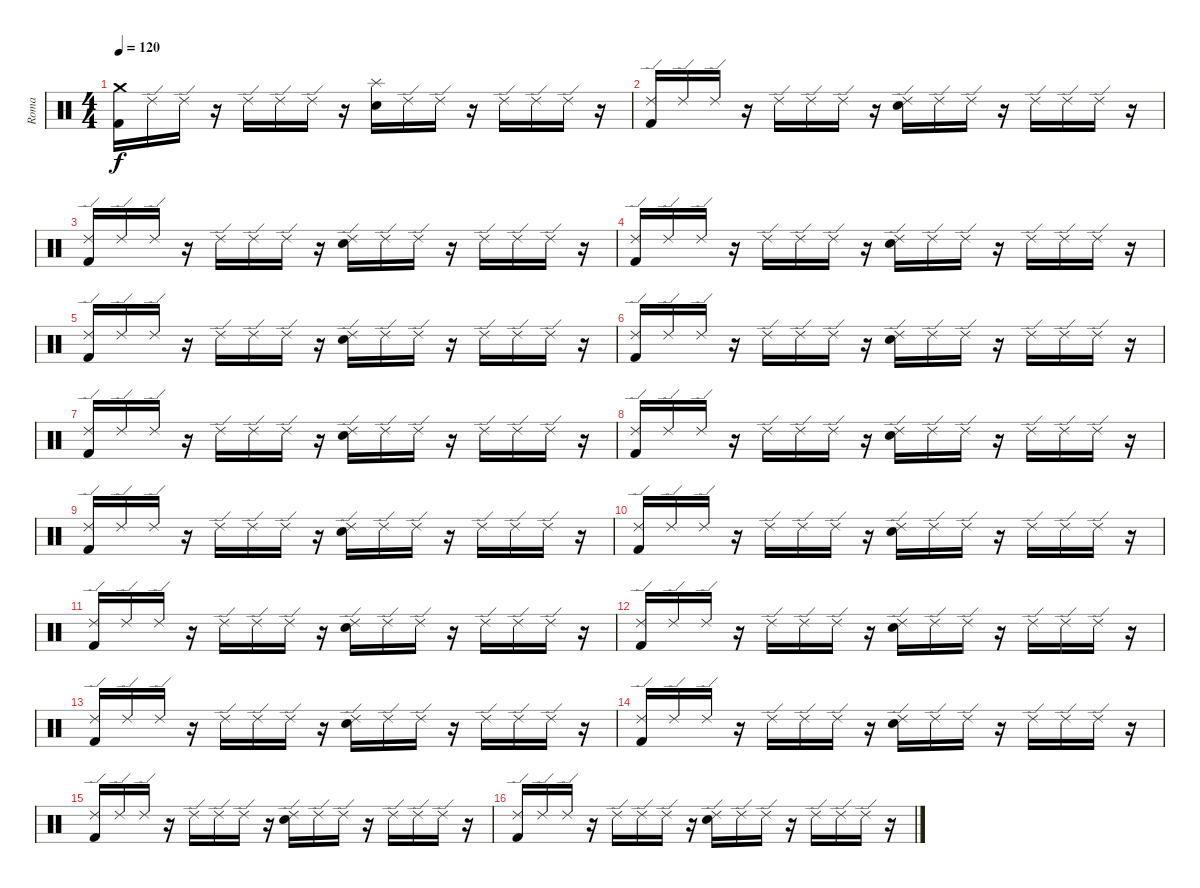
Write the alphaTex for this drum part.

\track ("Roma" "Roma") {instrument percussion}
\staff {score}
\articulation defaults
\ts (4 4)
\tempo 120
\clef neutral
\ks c
("Crash medium (hit)" "Kick (hit) 2").16{dy f} "Ride (edge) 2".16 "Ride (edge) 2".16 r.16 "Ride (edge) 2".16 "Ride (edge) 2".16 "Ride (edge) 2".16 r.16 ("Splash (hit)" "Electric Snare (hit)").16 "Ride (edge) 2".16 "Ride (edge) 2".16 r.16 "Ride (edge) 2".16 "Ride (edge) 2".16 "Ride (edge) 2".16 r.16 |
("Ride (edge) 2" "Kick (hit) 2").16 "Ride (edge) 2".16 "Ride (edge) 2".16 r.16 "Ride (edge) 2".16 "Ride (edge) 2".16 "Ride (edge) 2".16 r.16 ("Ride (edge) 2" "Electric Snare (hit)").16 "Ride (edge) 2".16 "Ride (edge) 2".16 r.16 "Ride (edge) 2".16 "Ride (edge) 2".16 "Ride (edge) 2".16 r.16 |
("Ride (edge) 2" "Kick (hit) 2").16 "Ride (edge) 2".16 "Ride (edge) 2".16 r.16 "Ride (edge) 2".16 "Ride (edge) 2".16 "Ride (edge) 2".16 r.16 ("Ride (edge) 2" "Electric Snare (hit)").16 "Ride (edge) 2".16 "Ride (edge) 2".16 r.16 "Ride (edge) 2".16 "Ride (edge) 2".16 "Ride (edge) 2".16 r.16 |
("Ride (edge) 2" "Kick (hit) 2").16 "Ride (edge) 2".16 "Ride (edge) 2".16 r.16 "Ride (edge) 2".16 "Ride (edge) 2".16 "Ride (edge) 2".16 r.16 ("Ride (edge) 2" "Electric Snare (hit)").16 "Ride (edge) 2".16 "Ride (edge) 2".16 r.16 "Ride (edge) 2".16 "Ride (edge) 2".16 "Ride (edge) 2".16 r.16 |
("Ride (edge) 2" "Kick (hit) 2").16 "Ride (edge) 2".16 "Ride (edge) 2".16 r.16 "Ride (edge) 2".16 "Ride (edge) 2".16 "Ride (edge) 2".16 r.16 ("Ride (edge) 2" "Electric Snare (hit)").16 "Ride (edge) 2".16 "Ride (edge) 2".16 r.16 "Ride (edge) 2".16 "Ride (edge) 2".16 "Ride (edge) 2".16 r.16 |
("Ride (edge) 2" "Kick (hit) 2").16 "Ride (edge) 2".16 "Ride (edge) 2".16 r.16 "Ride (edge) 2".16 "Ride (edge) 2".16 "Ride (edge) 2".16 r.16 ("Ride (edge) 2" "Electric Snare (hit)").16 "Ride (edge) 2".16 "Ride (edge) 2".16 r.16 "Ride (edge) 2".16 "Ride (edge) 2".16 "Ride (edge) 2".16 r.16 |
("Ride (edge) 2" "Kick (hit) 2").16 "Ride (edge) 2".16 "Ride (edge) 2".16 r.16 "Ride (edge) 2".16 "Ride (edge) 2".16 "Ride (edge) 2".16 r.16 ("Ride (edge) 2" "Electric Snare (hit)").16 "Ride (edge) 2".16 "Ride (edge) 2".16 r.16 "Ride (edge) 2".16 "Ride (edge) 2".16 "Ride (edge) 2".16 r.16 |
("Ride (edge) 2" "Kick (hit) 2").16 "Ride (edge) 2".16 "Ride (edge) 2".16 r.16 "Ride (edge) 2".16 "Ride (edge) 2".16 "Ride (edge) 2".16 r.16 ("Ride (edge) 2" "Electric Snare (hit)").16 "Ride (edge) 2".16 "Ride (edge) 2".16 r.16 "Ride (edge) 2".16 "Ride (edge) 2".16 "Ride (edge) 2".16 r.16 |
("Ride (edge) 2" "Kick (hit) 2").16 "Ride (edge) 2".16 "Ride (edge) 2".16 r.16 "Ride (edge) 2".16 "Ride (edge) 2".16 "Ride (edge) 2".16 r.16 ("Ride (edge) 2" "Electric Snare (hit)").16 "Ride (edge) 2".16 "Ride (edge) 2".16 r.16 "Ride (edge) 2".16 "Ride (edge) 2".16 "Ride (edge) 2".16 r.16 |
("Ride (edge) 2" "Kick (hit) 2").16 "Ride (edge) 2".16 "Ride (edge) 2".16 r.16 "Ride (edge) 2".16 "Ride (edge) 2".16 "Ride (edge) 2".16 r.16 ("Ride (edge) 2" "Electric Snare (hit)").16 "Ride (edge) 2".16 "Ride (edge) 2".16 r.16 "Ride (edge) 2".16 "Ride (edge) 2".16 "Ride (edge) 2".16 r.16 |
("Ride (edge) 2" "Kick (hit) 2").16 "Ride (edge) 2".16 "Ride (edge) 2".16 r.16 "Ride (edge) 2".16 "Ride (edge) 2".16 "Ride (edge) 2".16 r.16 ("Ride (edge) 2" "Electric Snare (hit)").16 "Ride (edge) 2".16 "Ride (edge) 2".16 r.16 "Ride (edge) 2".16 "Ride (edge) 2".16 "Ride (edge) 2".16 r.16 |
("Ride (edge) 2" "Kick (hit) 2").16 "Ride (edge) 2".16 "Ride (edge) 2".16 r.16 "Ride (edge) 2".16 "Ride (edge) 2".16 "Ride (edge) 2".16 r.16 ("Ride (edge) 2" "Electric Snare (hit)").16 "Ride (edge) 2".16 "Ride (edge) 2".16 r.16 "Ride (edge) 2".16 "Ride (edge) 2".16 "Ride (edge) 2".16 r.16 |
("Ride (edge) 2" "Kick (hit) 2").16 "Ride (edge) 2".16 "Ride (edge) 2".16 r.16 "Ride (edge) 2".16 "Ride (edge) 2".16 "Ride (edge) 2".16 r.16 ("Ride (edge) 2" "Electric Snare (hit)").16 "Ride (edge) 2".16 "Ride (edge) 2".16 r.16 "Ride (edge) 2".16 "Ride (edge) 2".16 "Ride (edge) 2".16 r.16 |
("Ride (edge) 2" "Kick (hit) 2").16 "Ride (edge) 2".16 "Ride (edge) 2".16 r.16 "Ride (edge) 2".16 "Ride (edge) 2".16 "Ride (edge) 2".16 r.16 ("Ride (edge) 2" "Electric Snare (hit)").16 "Ride (edge) 2".16 "Ride (edge) 2".16 r.16 "Ride (edge) 2".16 "Ride (edge) 2".16 "Ride (edge) 2".16 r.16 |
("Ride (edge) 2" "Kick (hit) 2").16 "Ride (edge) 2".16 "Ride (edge) 2".16 r.16 "Ride (edge) 2".16 "Ride (edge) 2".16 "Ride (edge) 2".16 r.16 ("Ride (edge) 2" "Electric Snare (hit)").16 "Ride (edge) 2".16 "Ride (edge) 2".16 r.16 "Ride (edge) 2".16 "Ride (edge) 2".16 "Ride (edge) 2".16 r.16 |
("Ride (edge) 2" "Kick (hit) 2").16 "Ride (edge) 2".16 "Ride (edge) 2".16 r.16 "Ride (edge) 2".16 "Ride (edge) 2".16 "Ride (edge) 2".16 r.16 ("Ride (edge) 2" "Electric Snare (hit)").16 "Ride (edge) 2".16 "Ride (edge) 2".16 r.16 "Ride (edge) 2".16 "Ride (edge) 2".16 "Ride (edge) 2".16 r.16
